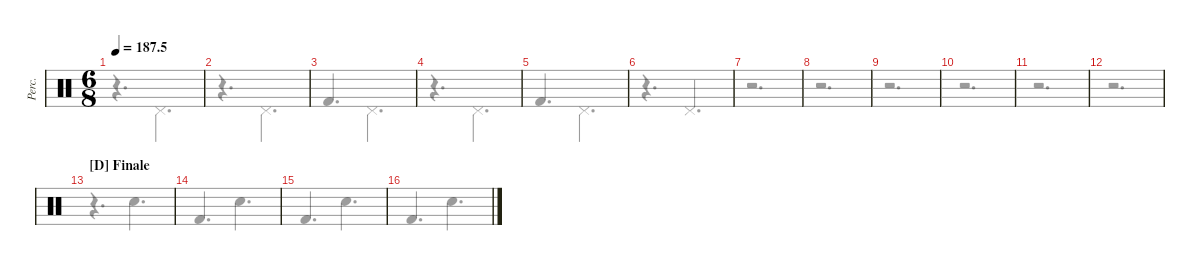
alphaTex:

\defaultSystemsLayout 4
\hideDynamics
\bracketExtendMode groupsimilarinstruments
\otherSystemsTrackNameOrientation horizontal
\track ("Percussions" "Perc.") {instrument percussion}
\staff {score}
\articulation defaults
\voice
\ts (6 8)
\tempo
187.5
\accidentals auto
\clef neutral
\ottava regular
\simile none
\ks c
|
|
|
|
|
|
|
|
|
|
|
|
\section ("D" "Finale")
|
|
|
\voice
\clef neutral
\ottava regular
\simile none
\ks c
r.4{d dy mf beam Down} "Pedal Hi-Hat (hit)".4{d beam Down} |
r.4{d beam Down} "Pedal Hi-Hat (hit)".4{d beam Down} |
"Kick (hit) 2".4{d beam Up} "Pedal Hi-Hat (hit)".4{d beam Down} |
r.4{d beam Down} "Pedal Hi-Hat (hit)".4{d beam Down} |
"Kick (hit) 2".4{d beam Up} "Pedal Hi-Hat (hit)".4{d beam Down} |
r.4{d beam Down} "Pedal Hi-Hat (hit)".4{d beam Up} |
r.2{d beam Down} |
r.2{d beam Down} |
r.2{d beam Down} |
r.2{d beam Down} |
r.2{d beam Down} |
r.2{d beam Down} |
r.4{d beam Down} "Snare (hit) 2".4{d beam Down} |
"Kick (hit) 2".4{d beam Up} "Snare (hit) 2".4{d beam Down} |
"Kick (hit) 2".4{d beam Up} "Snare (hit) 2".4{d beam Down} |
"Kick (hit) 2".4{d beam Up} "Snare (hit) 2".4{d beam Down}
